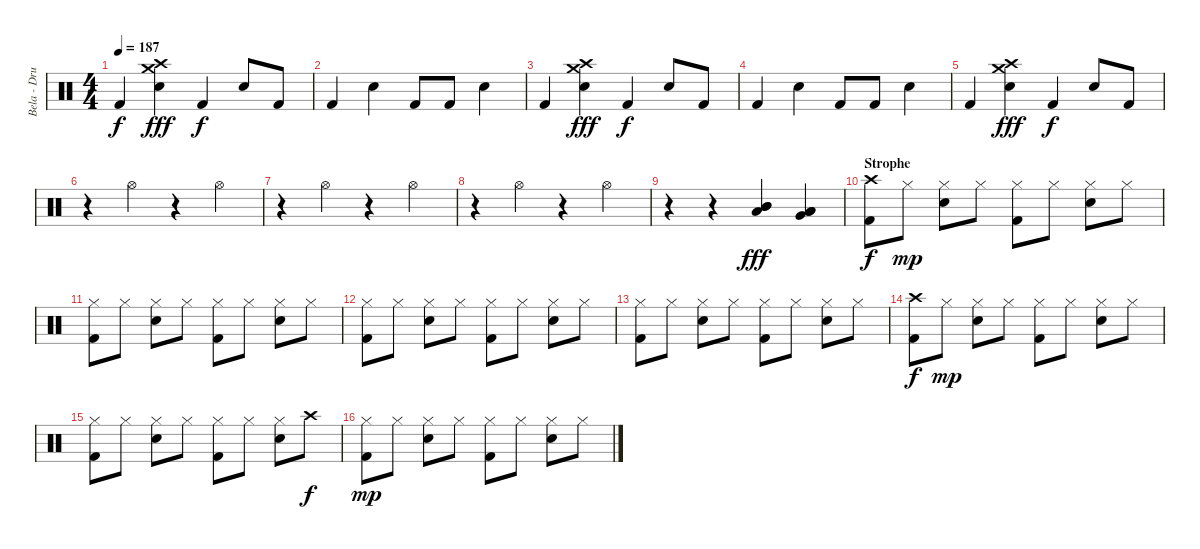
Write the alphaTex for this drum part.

\track ("Bela - Drums" "Bela - Dru") {instrument percussion}
\staff {score}
\articulation defaults
\ts (4 4)
\tempo 187
\clef neutral
\ks c "Kick (hit) 2".4{dy f}
("Crash medium (hit)" "Crash high (hit)" "Snare (hit) 2").4{dy fff} "Kick (hit) 2".4{dy f} "Snare (hit) 2".8 "Kick (hit) 2".8 |
"Kick (hit) 2".4 "Snare (hit) 2".4 "Kick (hit) 2".8 "Kick (hit) 2".8 "Snare (hit) 2".4 |
"Kick (hit) 2".4 ("Crash medium (hit)" "Crash high (hit)" "Snare (hit) 2").4{dy fff} "Kick (hit) 2".4{dy f} "Snare (hit) 2".8 "Kick (hit) 2".8 |
"Kick (hit) 2".4 "Snare (hit) 2".4 "Kick (hit) 2".8 "Kick (hit) 2".8 "Snare (hit) 2".4 |
"Kick (hit) 2".4 ("Crash medium (hit)" "Crash high (hit)" "Snare (hit) 2").4{dy fff} "Kick (hit) 2".4{dy f} "Snare (hit) 2".8 "Kick (hit) 2".8 |
\section ("" "")
r.4 "Hi-Hat (open)".4 r.4 "Hi-Hat (open)".4 |
r.4 "Hi-Hat (open)".4 r.4 "Hi-Hat (open)".4 |
r.4 "Hi-Hat (open)".4 r.4 "Hi-Hat (open)".4 |
r.4 r.4 ("Mid Tom (hit)" "Mid Tom (hit)" "Low Tom (hit)").4{dy fff} ("Low Tom (hit)" "Low Tom (hit)" "Very Low Tom (hit)").4 |
\section ("" "Strophe")
("Crash high (hit)" "Kick (hit) 2").8{dy f} "Hi-Hat (closed)".8{dy mp} ("Hi-Hat (closed)" "Snare (hit) 2").8 "Hi-Hat (closed)".8 ("Hi-Hat (closed)" "Kick (hit) 2").8 "Hi-Hat (closed)".8 ("Hi-Hat (closed)" "Snare (hit) 2").8 "Hi-Hat (closed)".8 |
("Hi-Hat (closed)" "Kick (hit) 2").8 "Hi-Hat (closed)".8 ("Hi-Hat (closed)" "Snare (hit) 2").8 "Hi-Hat (closed)".8 ("Hi-Hat (closed)" "Kick (hit) 2").8 "Hi-Hat (closed)".8 ("Hi-Hat (closed)" "Snare (hit) 2").8 "Hi-Hat (closed)".8 |
("Hi-Hat (closed)" "Kick (hit) 2").8 "Hi-Hat (closed)".8 ("Hi-Hat (closed)" "Snare (hit) 2").8 "Hi-Hat (closed)".8 ("Hi-Hat (closed)" "Kick (hit) 2").8 "Hi-Hat (closed)".8 ("Hi-Hat (closed)" "Snare (hit) 2").8 "Hi-Hat (closed)".8 |
("Hi-Hat (closed)" "Kick (hit) 2").8 "Hi-Hat (closed)".8 ("Hi-Hat (closed)" "Snare (hit) 2").8 "Hi-Hat (closed)".8 ("Hi-Hat (closed)" "Kick (hit) 2").8 "Hi-Hat (closed)".8 ("Hi-Hat (closed)" "Snare (hit) 2").8 "Hi-Hat (closed)".8 |
("Crash high (hit)" "Kick (hit) 2").8{dy f} "Hi-Hat (closed)".8{dy mp} ("Hi-Hat (closed)" "Snare (hit) 2").8 "Hi-Hat (closed)".8 ("Hi-Hat (closed)" "Kick (hit) 2").8 "Hi-Hat (closed)".8 ("Hi-Hat (closed)" "Snare (hit) 2").8 "Hi-Hat (closed)".8 |
("Hi-Hat (closed)" "Kick (hit) 2").8 "Hi-Hat (closed)".8 ("Hi-Hat (closed)" "Snare (hit) 2").8 "Hi-Hat (closed)".8 ("Hi-Hat (closed)" "Kick (hit) 2").8 "Hi-Hat (closed)".8 ("Hi-Hat (closed)" "Snare (hit) 2").8 "Crash high (hit)".8{dy f} |
("Hi-Hat (closed)" "Kick (hit) 2").8{dy mp} "Hi-Hat (closed)".8 ("Hi-Hat (closed)" "Snare (hit) 2").8 "Hi-Hat (closed)".8 ("Hi-Hat (closed)" "Kick (hit) 2").8 "Hi-Hat (closed)".8 ("Hi-Hat (closed)" "Snare (hit) 2").8 "Hi-Hat (closed)".8
